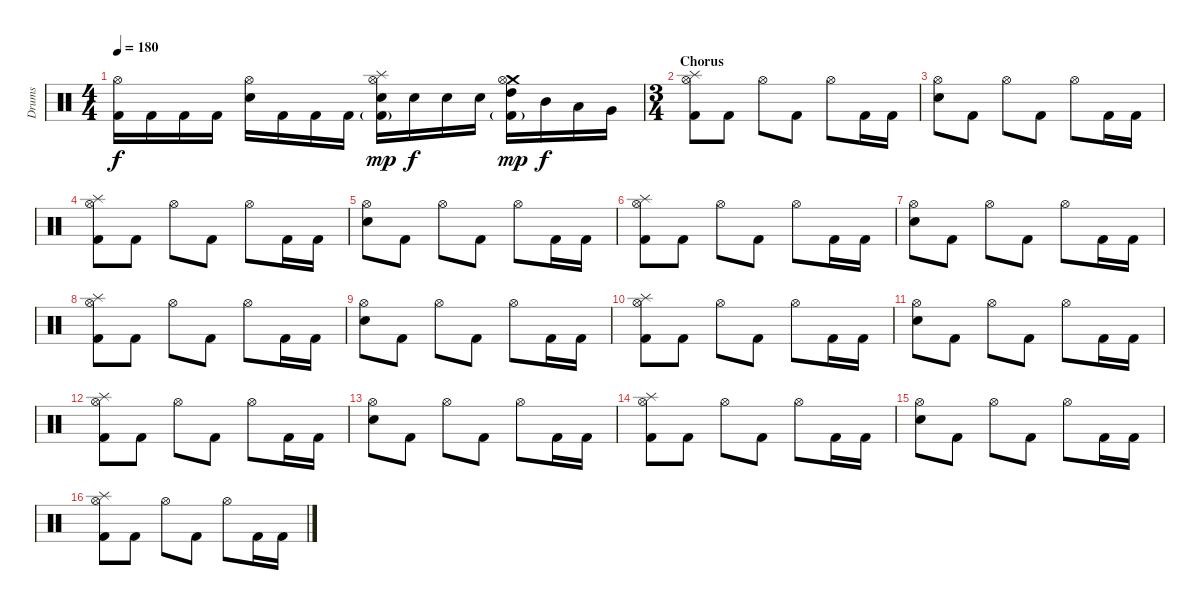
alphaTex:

\track ("Drums" "Drums") {instrument percussion}
\staff {score}
\articulation defaults
\ts (4 4)
\tempo 180
\clef neutral
\ks c
("Hi-Hat (open)" "Kick (hit) 2").16{dy f} "Kick (hit) 2".16 "Kick (hit) 2".16 "Kick (hit) 2".16 ("Hi-Hat (open)" "Electric Snare (hit)").16 "Kick (hit) 2".16 "Kick (hit) 2".16 "Kick (hit) 2".16 ("Splash (hit)" "Hi-Hat (open)" "Electric Snare (hit)" "Kick (hit) 2"{g}).16{dy mp} "Electric Snare (hit)".16{dy f} "Electric Snare (hit)".16 "Electric Snare (hit)".16 ("Crash medium (hit)" "Hi-Hat (open)" "High Tom (hit)" "Kick (hit) 2"{g}).16{dy mp} "Mid Tom (hit)".16{dy f} "Low Tom (hit)".16 "Very Low Tom (hit)".16 |
\ts (3 4)
\section ("" "Chorus")
("Splash (hit)" "Hi-Hat (open)" "Kick (hit) 2").8 "Kick (hit) 2".8 "Hi-Hat (open)".8 "Kick (hit) 2".8 "Hi-Hat (open)".8 "Kick (hit) 2".16 "Kick (hit) 2".16 |
("Hi-Hat (open)" "Electric Snare (hit)").8 "Kick (hit) 2".8 "Hi-Hat (open)".8 "Kick (hit) 2".8 "Hi-Hat (open)".8 "Kick (hit) 2".16 "Kick (hit) 2".16 |
("Splash (hit)" "Hi-Hat (open)" "Kick (hit) 2").8 "Kick (hit) 2".8 "Hi-Hat (open)".8 "Kick (hit) 2".8 "Hi-Hat (open)".8 "Kick (hit) 2".16 "Kick (hit) 2".16 |
("Hi-Hat (open)" "Electric Snare (hit)").8 "Kick (hit) 2".8 "Hi-Hat (open)".8 "Kick (hit) 2".8 "Hi-Hat (open)".8 "Kick (hit) 2".16 "Kick (hit) 2".16 |
("Splash (hit)" "Hi-Hat (open)" "Kick (hit) 2").8 "Kick (hit) 2".8 "Hi-Hat (open)".8 "Kick (hit) 2".8 "Hi-Hat (open)".8 "Kick (hit) 2".16 "Kick (hit) 2".16 |
("Hi-Hat (open)" "Electric Snare (hit)").8 "Kick (hit) 2".8 "Hi-Hat (open)".8 "Kick (hit) 2".8 "Hi-Hat (open)".8 "Kick (hit) 2".16 "Kick (hit) 2".16 |
("Splash (hit)" "Hi-Hat (open)" "Kick (hit) 2").8 "Kick (hit) 2".8 "Hi-Hat (open)".8 "Kick (hit) 2".8 "Hi-Hat (open)".8 "Kick (hit) 2".16 "Kick (hit) 2".16 |
("Hi-Hat (open)" "Electric Snare (hit)").8 "Kick (hit) 2".8 "Hi-Hat (open)".8 "Kick (hit) 2".8 "Hi-Hat (open)".8 "Kick (hit) 2".16 "Kick (hit) 2".16 |
("Splash (hit)" "Hi-Hat (open)" "Kick (hit) 2").8 "Kick (hit) 2".8 "Hi-Hat (open)".8 "Kick (hit) 2".8 "Hi-Hat (open)".8 "Kick (hit) 2".16 "Kick (hit) 2".16 |
("Hi-Hat (open)" "Electric Snare (hit)").8 "Kick (hit) 2".8 "Hi-Hat (open)".8 "Kick (hit) 2".8 "Hi-Hat (open)".8 "Kick (hit) 2".16 "Kick (hit) 2".16 |
("Splash (hit)" "Hi-Hat (open)" "Kick (hit) 2").8 "Kick (hit) 2".8 "Hi-Hat (open)".8 "Kick (hit) 2".8 "Hi-Hat (open)".8 "Kick (hit) 2".16 "Kick (hit) 2".16 |
("Hi-Hat (open)" "Electric Snare (hit)").8 "Kick (hit) 2".8 "Hi-Hat (open)".8 "Kick (hit) 2".8 "Hi-Hat (open)".8 "Kick (hit) 2".16 "Kick (hit) 2".16 |
("Splash (hit)" "Hi-Hat (open)" "Kick (hit) 2").8 "Kick (hit) 2".8 "Hi-Hat (open)".8 "Kick (hit) 2".8 "Hi-Hat (open)".8 "Kick (hit) 2".16 "Kick (hit) 2".16 |
("Hi-Hat (open)" "Electric Snare (hit)").8 "Kick (hit) 2".8 "Hi-Hat (open)".8 "Kick (hit) 2".8 "Hi-Hat (open)".8 "Kick (hit) 2".16 "Kick (hit) 2".16 |
("Splash (hit)" "Hi-Hat (open)" "Kick (hit) 2").8 "Kick (hit) 2".8 "Hi-Hat (open)".8 "Kick (hit) 2".8 "Hi-Hat (open)".8 "Kick (hit) 2".16 "Kick (hit) 2".16
